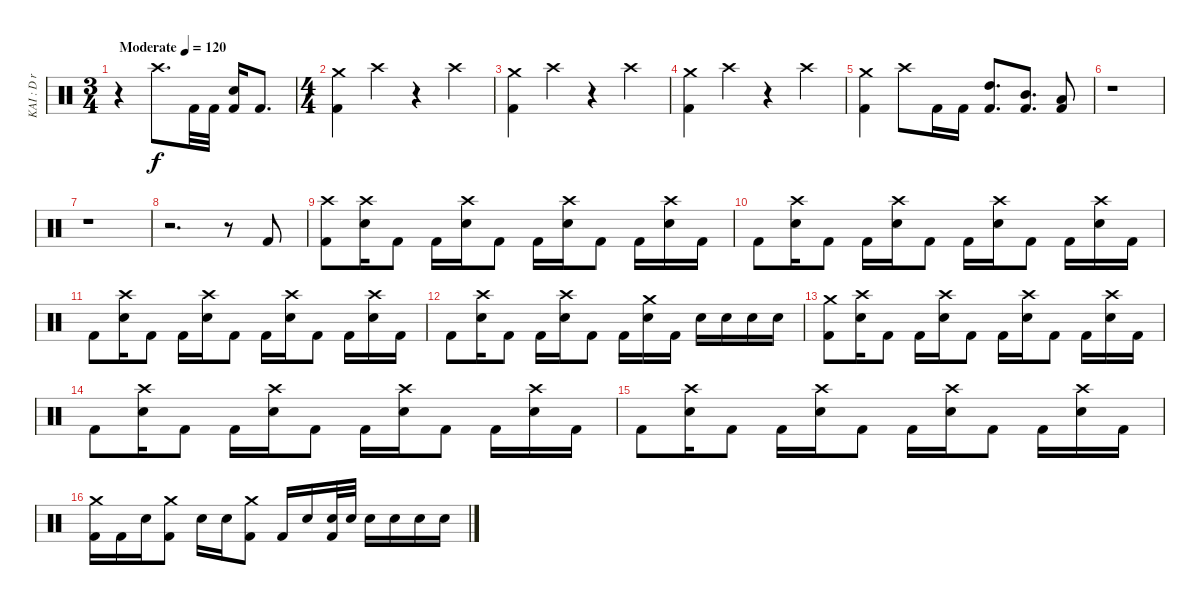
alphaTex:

\track ("KAI : D r u m S" "KAI : D r ") {instrument percussion}
\staff {score}
\articulation defaults
\ts (3 4)
\tempo (120 "Moderate")
\clef neutral
\ks c
r.4{dy f} "Crash high (hit)".8{d} "Kick (hit) 2".32 "Kick (hit) 2".32 ("Electric Snare (hit)" "Kick (hit) 2").16 "Kick (hit) 2".8{d} |
\ts (4 4)
("Crash medium (hit)" "Kick (hit) 2").4 "Crash high (hit)".4 r.4 "Crash high (hit)".4 |
("Crash medium (hit)" "Kick (hit) 2").4 "Crash high (hit)".4 r.4 "Crash high (hit)".4 |
("Crash medium (hit)" "Kick (hit) 2").4 "Crash high (hit)".4 r.4 "Crash high (hit)".4 |
("Crash medium (hit)" "Kick (hit) 2").4 "Crash high (hit)".8 "Kick (hit) 2".16 "Kick (hit) 2".16 ("High Tom (hit)" "Kick (hit) 2").8{d} ("Mid Tom (hit)" "Kick (hit) 2").8{d} ("Low Tom (hit)" "Kick (hit) 2").8 |
r.1 |
r.1 |
r.2{d} r.8 "Kick (hit) 2".8 |
("Crash high (hit)" "Kick (hit) 2").8 ("Crash high (hit)" "Electric Snare (hit)").16 "Kick (hit) 2".8 "Kick (hit) 2".16 ("Crash high (hit)" "Electric Snare (hit)").16 "Kick (hit) 2".8 "Kick (hit) 2".16 ("Crash high (hit)" "Electric Snare (hit)").16 "Kick (hit) 2".8 "Kick (hit) 2".16 ("Crash high (hit)" "Electric Snare (hit)").16 "Kick (hit) 2".16 |
"Kick (hit) 2".8 ("Crash high (hit)" "Electric Snare (hit)").16 "Kick (hit) 2".8 "Kick (hit) 2".16 ("Crash high (hit)" "Electric Snare (hit)").16 "Kick (hit) 2".8 "Kick (hit) 2".16 ("Crash high (hit)" "Electric Snare (hit)").16 "Kick (hit) 2".8 "Kick (hit) 2".16 ("Crash high (hit)" "Electric Snare (hit)").16 "Kick (hit) 2".16 |
"Kick (hit) 2".8 ("Crash high (hit)" "Electric Snare (hit)").16 "Kick (hit) 2".8 "Kick (hit) 2".16 ("Crash high (hit)" "Electric Snare (hit)").16 "Kick (hit) 2".8 "Kick (hit) 2".16 ("Crash high (hit)" "Electric Snare (hit)").16 "Kick (hit) 2".8 "Kick (hit) 2".16 ("Crash high (hit)" "Electric Snare (hit)").16 "Kick (hit) 2".16 |
"Kick (hit) 2".8 ("Crash high (hit)" "Electric Snare (hit)").16 "Kick (hit) 2".8 "Kick (hit) 2".16 ("Crash high (hit)" "Electric Snare (hit)").16 "Kick (hit) 2".8 "Kick (hit) 2".16 ("Crash medium (hit)" "Electric Snare (hit)").16 "Kick (hit) 2".16 "Electric Snare (hit)".16 "Electric Snare (hit)".16 "Electric Snare (hit)".16 "Electric Snare (hit)".16 |
("Crash medium (hit)" "Kick (hit) 2").8 ("Crash high (hit)" "Electric Snare (hit)").16 "Kick (hit) 2".8 "Kick (hit) 2".16 ("Crash high (hit)" "Electric Snare (hit)").16 "Kick (hit) 2".8 "Kick (hit) 2".16 ("Crash high (hit)" "Electric Snare (hit)").16 "Kick (hit) 2".8 "Kick (hit) 2".16 ("Crash high (hit)" "Electric Snare (hit)").16 "Kick (hit) 2".16 |
"Kick (hit) 2".8 ("Crash high (hit)" "Electric Snare (hit)").16 "Kick (hit) 2".8 "Kick (hit) 2".16 ("Crash high (hit)" "Electric Snare (hit)").16 "Kick (hit) 2".8 "Kick (hit) 2".16 ("Crash high (hit)" "Electric Snare (hit)").16 "Kick (hit) 2".8 "Kick (hit) 2".16 ("Crash high (hit)" "Electric Snare (hit)").16 "Kick (hit) 2".16 |
"Kick (hit) 2".8 ("Crash high (hit)" "Electric Snare (hit)").16 "Kick (hit) 2".8 "Kick (hit) 2".16 ("Crash high (hit)" "Electric Snare (hit)").16 "Kick (hit) 2".8 "Kick (hit) 2".16 ("Crash high (hit)" "Electric Snare (hit)").16 "Kick (hit) 2".8 "Kick (hit) 2".16 ("Crash high (hit)" "Electric Snare (hit)").16 "Kick (hit) 2".16 |
("Crash medium (hit)" "Kick (hit) 2").16 "Kick (hit) 2".16 "Electric Snare (hit)".16 ("Crash medium (hit)" "Kick (hit) 2").8 "Electric Snare (hit)".16 "Electric Snare (hit)".16 ("Crash medium (hit)" "Kick (hit) 2").8 "Kick (hit) 2".16 "Electric Snare (hit)".16 ("Electric Snare (hit)" "Kick (hit) 2").32 "Electric Snare (hit)".32 "Electric Snare (hit)".16 "Electric Snare (hit)".16 "Electric Snare (hit)".16 "Electric Snare (hit)".16
